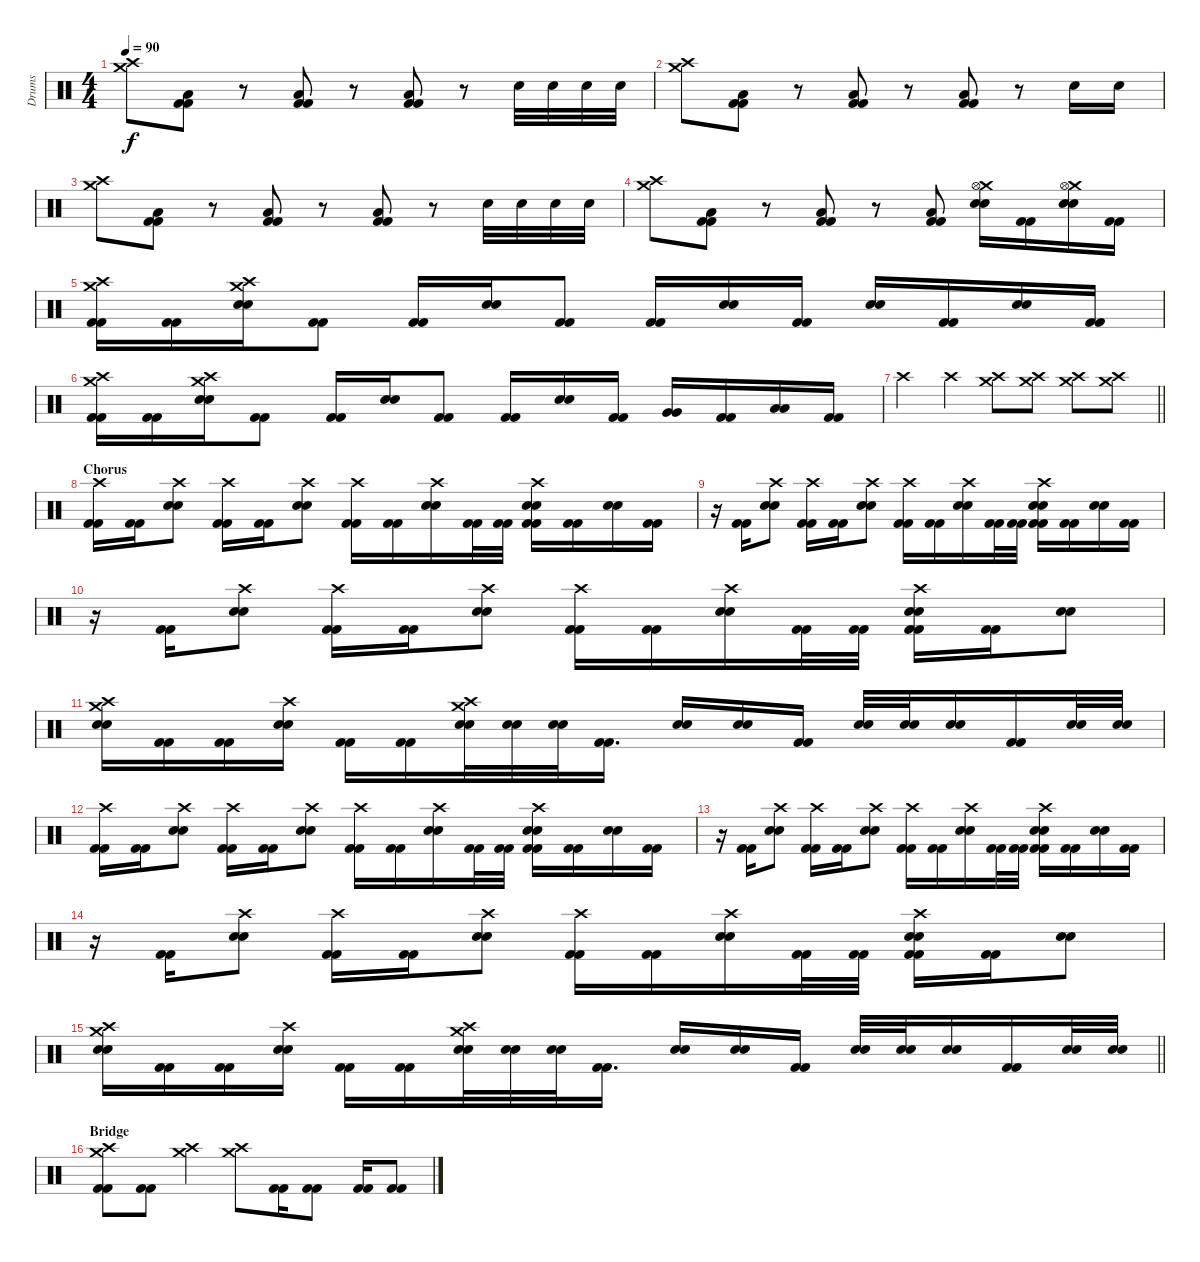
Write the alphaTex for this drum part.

\track ("Drums" "Drums") {instrument percussion}
\staff {score}
\articulation defaults
\ts (4 4)
\tempo 90
\clef neutral
\ks c
("Crash medium (hit)" "Crash high (hit)").8{dy f} ("Low Floor Tom (hit)" "Kick (hit) 2" "Kick (hit) 2").8 r.8 ("Low Floor Tom (hit)" "Kick (hit) 2" "Kick (hit) 2").8 r.8 ("Low Floor Tom (hit)" "Kick (hit) 2" "Kick (hit) 2").8 r.8 "Electric Snare (hit)".32 "Electric Snare (hit)".32 "Electric Snare (hit)".32 "Electric Snare (hit)".32 |
("Crash medium (hit)" "Crash high (hit)").8 ("Low Floor Tom (hit)" "Kick (hit) 2" "Kick (hit) 2").8 r.8 ("Low Floor Tom (hit)" "Kick (hit) 2" "Kick (hit) 2").8 r.8 ("Low Floor Tom (hit)" "Kick (hit) 2" "Kick (hit) 2").8 r.8 "Electric Snare (hit)".16 "Electric Snare (hit)".16 |
("Crash medium (hit)" "Crash high (hit)").8 ("Low Floor Tom (hit)" "Kick (hit) 2" "Kick (hit) 2").8 r.8 ("Low Floor Tom (hit)" "Kick (hit) 2" "Kick (hit) 2").8 r.8 ("Low Floor Tom (hit)" "Kick (hit) 2" "Kick (hit) 2").8 r.8 "Electric Snare (hit)".32 "Electric Snare (hit)".32 "Electric Snare (hit)".32 "Electric Snare (hit)".32 |
("Crash medium (hit)" "Crash high (hit)").8 ("Low Floor Tom (hit)" "Kick (hit) 2" "Kick (hit) 2").8 r.8 ("Low Floor Tom (hit)" "Kick (hit) 2" "Kick (hit) 2").8 r.8 ("Low Floor Tom (hit)" "Kick (hit) 2" "Kick (hit) 2").8 ("Crash medium (hit)" "Hi-Hat (open)" "Electric Snare (hit)" "Electric Snare (hit)").16 ("Kick (hit) 2" "Kick (hit) 2").16 ("Crash medium (hit)" "Hi-Hat (open)" "Electric Snare (hit)" "Electric Snare (hit)").16 ("Kick (hit) 2" "Kick (hit) 2").16 |
("Crash medium (hit)" "Crash high (hit)" "Kick (hit) 2" "Kick (hit) 2").16 ("Kick (hit) 2" "Kick (hit) 2").16 ("Crash medium (hit)" "Crash high (hit)" "Electric Snare (hit)" "Electric Snare (hit)").16 ("Kick (hit) 2" "Kick (hit) 2").8 ("Kick (hit) 2" "Kick (hit) 2").16 ("Electric Snare (hit)" "Electric Snare (hit)").16 ("Kick (hit) 2" "Kick (hit) 2").8 ("Kick (hit) 2" "Kick (hit) 2").16 ("Electric Snare (hit)" "Electric Snare (hit)").16 ("Kick (hit) 2" "Kick (hit) 2").16 ("Electric Snare (hit)" "Electric Snare (hit)").16 ("Kick (hit) 2" "Kick (hit) 2").16 ("Electric Snare (hit)" "Electric Snare (hit)").16 ("Kick (hit) 2" "Kick (hit) 2").16 |
("Crash medium (hit)" "Crash high (hit)" "Kick (hit) 2" "Kick (hit) 2").16 ("Kick (hit) 2" "Kick (hit) 2").16 ("Crash medium (hit)" "Crash high (hit)" "Electric Snare (hit)" "Electric Snare (hit)").16 ("Kick (hit) 2" "Kick (hit) 2").8 ("Kick (hit) 2" "Kick (hit) 2").16 ("Electric Snare (hit)" "Electric Snare (hit)").16 ("Kick (hit) 2" "Kick (hit) 2").8 ("Kick (hit) 2" "Kick (hit) 2").16 ("Electric Snare (hit)" "Electric Snare (hit)").16 ("Kick (hit) 2" "Kick (hit) 2").16 ("Very Low Tom (hit)" "Very Low Tom (hit)").16 ("Kick (hit) 2" "Kick (hit) 2").16 ("Low Floor Tom (hit)" "Low Floor Tom (hit)").16 ("Kick (hit) 2" "Kick (hit) 2").16 |
\barLineRight lightlight "Crash high (hit)".4 "Crash high (hit)".4
("Crash medium (hit)" "Crash high (hit)").8 ("Crash medium (hit)" "Crash high (hit)").8 ("Crash medium (hit)" "Crash high (hit)").8 ("Crash medium (hit)" "Crash high (hit)").8 |
\section ("" "Chorus")
("Crash high (hit)" "Kick (hit) 2" "Kick (hit) 2").16 ("Kick (hit) 2" "Kick (hit) 2").16 ("Crash high (hit)" "Electric Snare (hit)" "Electric Snare (hit)").8 ("Crash high (hit)" "Kick (hit) 2" "Kick (hit) 2").16 ("Kick (hit) 2" "Kick (hit) 2").16 ("Crash high (hit)" "Electric Snare (hit)" "Electric Snare (hit)").8 ("Crash high (hit)" "Kick (hit) 2" "Kick (hit) 2").16 ("Kick (hit) 2" "Kick (hit) 2").16 ("Crash high (hit)" "Electric Snare (hit)" "Electric Snare (hit)").16 ("Kick (hit) 2" "Kick (hit) 2").32 ("Kick (hit) 2" "Kick (hit) 2").32 ("Crash high (hit)" "Electric Snare (hit)" "Electric Snare (hit)" "Kick (hit) 2" "Kick (hit) 2").16 ("Kick (hit) 2" "Kick (hit) 2").16 ("Electric Snare (hit)" "Electric Snare (hit)").16 ("Kick (hit) 2" "Kick (hit) 2").16 |
r.16 ("Kick (hit) 2" "Kick (hit) 2").16 ("Crash high (hit)" "Electric Snare (hit)" "Electric Snare (hit)").8 ("Crash high (hit)" "Kick (hit) 2" "Kick (hit) 2").16 ("Kick (hit) 2" "Kick (hit) 2").16 ("Crash high (hit)" "Electric Snare (hit)" "Electric Snare (hit)").8 ("Crash high (hit)" "Kick (hit) 2" "Kick (hit) 2").16 ("Kick (hit) 2" "Kick (hit) 2").16 ("Crash high (hit)" "Electric Snare (hit)" "Electric Snare (hit)").16 ("Kick (hit) 2" "Kick (hit) 2").32 ("Kick (hit) 2" "Kick (hit) 2").32 ("Crash high (hit)" "Electric Snare (hit)" "Electric Snare (hit)" "Kick (hit) 2" "Kick (hit) 2").16 ("Kick (hit) 2" "Kick (hit) 2").16 ("Electric Snare (hit)" "Electric Snare (hit)").16 ("Kick (hit) 2" "Kick (hit) 2").16 |
r.16 ("Kick (hit) 2" "Kick (hit) 2").16 ("Crash high (hit)" "Electric Snare (hit)" "Electric Snare (hit)").8 ("Crash high (hit)" "Kick (hit) 2" "Kick (hit) 2").16 ("Kick (hit) 2" "Kick (hit) 2").16 ("Crash high (hit)" "Electric Snare (hit)" "Electric Snare (hit)").8 ("Crash high (hit)" "Kick (hit) 2" "Kick (hit) 2").16 ("Kick (hit) 2" "Kick (hit) 2").16 ("Crash high (hit)" "Electric Snare (hit)" "Electric Snare (hit)").16 ("Kick (hit) 2" "Kick (hit) 2").32 ("Kick (hit) 2" "Kick (hit) 2").32 ("Crash high (hit)" "Electric Snare (hit)" "Electric Snare (hit)" "Kick (hit) 2" "Kick (hit) 2").16 ("Kick (hit) 2" "Kick (hit) 2").16 ("Electric Snare (hit)" "Electric Snare (hit)").8 |
("Crash medium (hit)" "Crash high (hit)" "Electric Snare (hit)" "Electric Snare (hit)").16 ("Kick (hit) 2" "Kick (hit) 2").16 ("Kick (hit) 2" "Kick (hit) 2").16 ("Crash high (hit)" "Electric Snare (hit)" "Electric Snare (hit)").16 ("Kick (hit) 2" "Kick (hit) 2").16 ("Kick (hit) 2" "Kick (hit) 2").16 ("Crash medium (hit)" "Crash high (hit)" "Electric Snare (hit)" "Electric Snare (hit)").32 ("Electric Snare (hit)" "Electric Snare (hit)").32 ("Electric Snare (hit)" "Electric Snare (hit)").32 ("Kick (hit) 2" "Kick (hit) 2").16{d} ("Electric Snare (hit)" "Electric Snare (hit)").16 ("Electric Snare (hit)" "Electric Snare (hit)").16 ("Kick (hit) 2" "Kick (hit) 2").16 ("Electric Snare (hit)" "Electric Snare (hit)").32 ("Electric Snare (hit)" "Electric Snare (hit)").32 ("Electric Snare (hit)" "Electric Snare (hit)").16 ("Kick (hit) 2" "Kick (hit) 2").16 ("Electric Snare (hit)" "Electric Snare (hit)").32 ("Electric Snare (hit)" "Electric Snare (hit)").32 |
("Crash high (hit)" "Kick (hit) 2" "Kick (hit) 2").16 ("Kick (hit) 2" "Kick (hit) 2").16 ("Crash high (hit)" "Electric Snare (hit)" "Electric Snare (hit)").8 ("Crash high (hit)" "Kick (hit) 2" "Kick (hit) 2").16 ("Kick (hit) 2" "Kick (hit) 2").16 ("Crash high (hit)" "Electric Snare (hit)" "Electric Snare (hit)").8 ("Crash high (hit)" "Kick (hit) 2" "Kick (hit) 2").16 ("Kick (hit) 2" "Kick (hit) 2").16 ("Crash high (hit)" "Electric Snare (hit)" "Electric Snare (hit)").16 ("Kick (hit) 2" "Kick (hit) 2").32 ("Kick (hit) 2" "Kick (hit) 2").32 ("Crash high (hit)" "Electric Snare (hit)" "Electric Snare (hit)" "Kick (hit) 2" "Kick (hit) 2").16 ("Kick (hit) 2" "Kick (hit) 2").16 ("Electric Snare (hit)" "Electric Snare (hit)").16 ("Kick (hit) 2" "Kick (hit) 2").16 |
r.16 ("Kick (hit) 2" "Kick (hit) 2").16 ("Crash high (hit)" "Electric Snare (hit)" "Electric Snare (hit)").8 ("Crash high (hit)" "Kick (hit) 2" "Kick (hit) 2").16 ("Kick (hit) 2" "Kick (hit) 2").16 ("Crash high (hit)" "Electric Snare (hit)" "Electric Snare (hit)").8 ("Crash high (hit)" "Kick (hit) 2" "Kick (hit) 2").16 ("Kick (hit) 2" "Kick (hit) 2").16 ("Crash high (hit)" "Electric Snare (hit)" "Electric Snare (hit)").16 ("Kick (hit) 2" "Kick (hit) 2").32 ("Kick (hit) 2" "Kick (hit) 2").32 ("Crash high (hit)" "Electric Snare (hit)" "Electric Snare (hit)" "Kick (hit) 2" "Kick (hit) 2").16 ("Kick (hit) 2" "Kick (hit) 2").16 ("Electric Snare (hit)" "Electric Snare (hit)").16 ("Kick (hit) 2" "Kick (hit) 2").16 |
r.16 ("Kick (hit) 2" "Kick (hit) 2").16 ("Crash high (hit)" "Electric Snare (hit)" "Electric Snare (hit)").8 ("Crash high (hit)" "Kick (hit) 2" "Kick (hit) 2").16 ("Kick (hit) 2" "Kick (hit) 2").16 ("Crash high (hit)" "Electric Snare (hit)" "Electric Snare (hit)").8 ("Crash high (hit)" "Kick (hit) 2" "Kick (hit) 2").16 ("Kick (hit) 2" "Kick (hit) 2").16 ("Crash high (hit)" "Electric Snare (hit)" "Electric Snare (hit)").16 ("Kick (hit) 2" "Kick (hit) 2").32 ("Kick (hit) 2" "Kick (hit) 2").32 ("Crash high (hit)" "Electric Snare (hit)" "Electric Snare (hit)" "Kick (hit) 2" "Kick (hit) 2").16 ("Kick (hit) 2" "Kick (hit) 2").16 ("Electric Snare (hit)" "Electric Snare (hit)").8 |
\barLineRight lightlight
("Crash medium (hit)" "Crash high (hit)" "Electric Snare (hit)" "Electric Snare (hit)").16 ("Kick (hit) 2" "Kick (hit) 2").16 ("Kick (hit) 2" "Kick (hit) 2").16 ("Crash high (hit)" "Electric Snare (hit)" "Electric Snare (hit)").16 ("Kick (hit) 2" "Kick (hit) 2").16 ("Kick (hit) 2" "Kick (hit) 2").16 ("Crash medium (hit)" "Crash high (hit)" "Electric Snare (hit)" "Electric Snare (hit)").32 ("Electric Snare (hit)" "Electric Snare (hit)").32 ("Electric Snare (hit)" "Electric Snare (hit)").32 ("Kick (hit) 2" "Kick (hit) 2").16{d} ("Electric Snare (hit)" "Electric Snare (hit)").16 ("Electric Snare (hit)" "Electric Snare (hit)").16 ("Kick (hit) 2" "Kick (hit) 2").16 ("Electric Snare (hit)" "Electric Snare (hit)").32 ("Electric Snare (hit)" "Electric Snare (hit)").32 ("Electric Snare (hit)" "Electric Snare (hit)").16 ("Kick (hit) 2" "Kick (hit) 2").16 ("Electric Snare (hit)" "Electric Snare (hit)").32 ("Electric Snare (hit)" "Electric Snare (hit)").32 |
\section ("" "Bridge")
("Crash medium (hit)" "Crash high (hit)" "Kick (hit) 2" "Kick (hit) 2").8 ("Kick (hit) 2" "Kick (hit) 2").8 ("Crash medium (hit)" "Crash high (hit)").4 ("Crash medium (hit)" "Crash high (hit)").8 ("Kick (hit) 2" "Kick (hit) 2").16 ("Kick (hit) 2" "Kick (hit) 2").8 ("Kick (hit) 2" "Kick (hit) 2").16 ("Kick (hit) 2" "Kick (hit) 2").8
